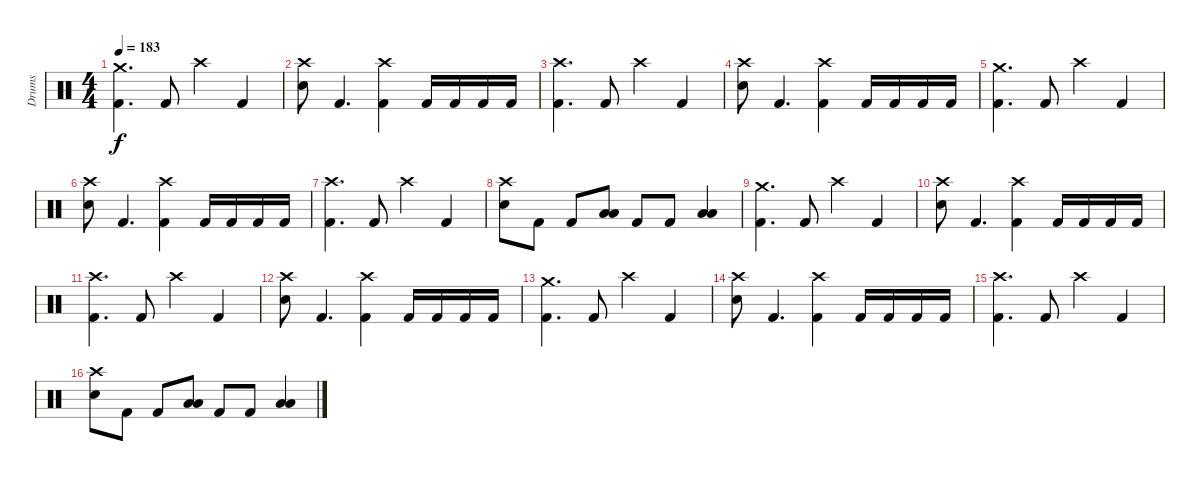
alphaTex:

\track ("Drums" "Drums") {instrument percussion}
\staff {score}
\articulation defaults
\ts (4 4)
\tempo 183
\clef neutral
\ks c
("Crash medium (hit)" "Kick (hit) 2").4{d dy f} "Kick (hit) 2".8 "Crash high (hit)".4 "Kick (hit) 2".4 |
("Crash high (hit)" "Electric Snare (hit)").8 "Kick (hit) 2".4{d} ("Crash high (hit)" "Kick (hit) 2").4 "Kick (hit) 2".16 "Kick (hit) 2".16 "Kick (hit) 2".16 "Kick (hit) 2".16 |
("Crash high (hit)" "Kick (hit) 2").4{d} "Kick (hit) 2".8 "Crash high (hit)".4 "Kick (hit) 2".4 |
("Crash high (hit)" "Electric Snare (hit)").8 "Kick (hit) 2".4{d} ("Crash high (hit)" "Kick (hit) 2").4 "Kick (hit) 2".16 "Kick (hit) 2".16 "Kick (hit) 2".16 "Kick (hit) 2".16 |
("Crash medium (hit)" "Kick (hit) 2").4{d} "Kick (hit) 2".8 "Crash high (hit)".4 "Kick (hit) 2".4 |
("Crash high (hit)" "Electric Snare (hit)").8 "Kick (hit) 2".4{d} ("Crash high (hit)" "Kick (hit) 2").4 "Kick (hit) 2".16 "Kick (hit) 2".16 "Kick (hit) 2".16 "Kick (hit) 2".16 |
("Crash high (hit)" "Kick (hit) 2").4{d} "Kick (hit) 2".8 "Crash high (hit)".4 "Kick (hit) 2".4 |
("Crash high (hit)" "Electric Snare (hit)").8 "Kick (hit) 2".8 "Kick (hit) 2".8 ("Low Tom (hit)" "Low Tom (hit)").8 "Kick (hit) 2".8 "Kick (hit) 2".8 ("Low Tom (hit)" "Low Floor Tom (hit)").4 |
("Crash medium (hit)" "Kick (hit) 2").4{d} "Kick (hit) 2".8 "Crash high (hit)".4 "Kick (hit) 2".4 |
("Crash high (hit)" "Electric Snare (hit)").8 "Kick (hit) 2".4{d} ("Crash high (hit)" "Kick (hit) 2").4 "Kick (hit) 2".16 "Kick (hit) 2".16 "Kick (hit) 2".16 "Kick (hit) 2".16 |
("Crash high (hit)" "Kick (hit) 2").4{d} "Kick (hit) 2".8 "Crash high (hit)".4 "Kick (hit) 2".4 |
("Crash high (hit)" "Electric Snare (hit)").8 "Kick (hit) 2".4{d} ("Crash high (hit)" "Kick (hit) 2").4 "Kick (hit) 2".16 "Kick (hit) 2".16 "Kick (hit) 2".16 "Kick (hit) 2".16 |
("Crash medium (hit)" "Kick (hit) 2").4{d} "Kick (hit) 2".8 "Crash high (hit)".4 "Kick (hit) 2".4 |
("Crash high (hit)" "Electric Snare (hit)").8 "Kick (hit) 2".4{d} ("Crash high (hit)" "Kick (hit) 2").4 "Kick (hit) 2".16 "Kick (hit) 2".16 "Kick (hit) 2".16 "Kick (hit) 2".16 |
("Crash high (hit)" "Kick (hit) 2").4{d} "Kick (hit) 2".8 "Crash high (hit)".4 "Kick (hit) 2".4 |
("Crash high (hit)" "Electric Snare (hit)").8 "Kick (hit) 2".8 "Kick (hit) 2".8 ("Low Tom (hit)" "Low Tom (hit)").8 "Kick (hit) 2".8 "Kick (hit) 2".8 ("Low Tom (hit)" "Low Floor Tom (hit)").4
